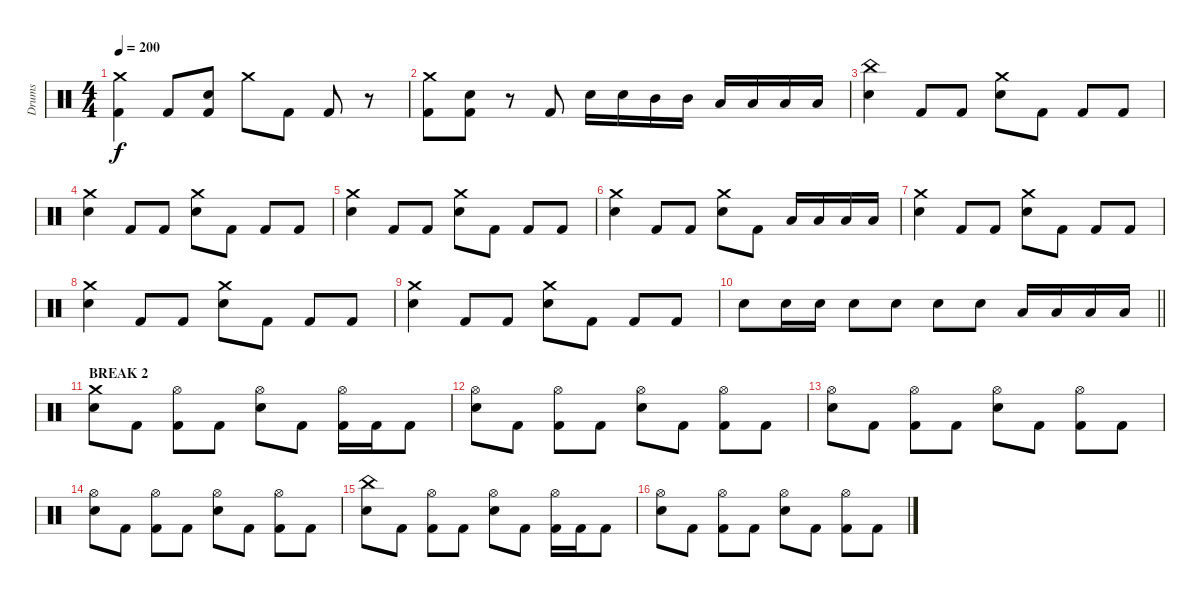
\track ("Drums" "Drums") {instrument percussion}
\staff {score}
\articulation defaults
\ts (4 4)
\tempo 200
\clef neutral
\ks c
("Crash medium (hit)" "Kick (hit) 2").4{dy f} "Kick (hit) 2".8 ("Electric Snare (hit)" "Kick (hit) 2").8 "Crash medium (hit)".8 "Kick (hit) 2".8 "Kick (hit) 2".8 r.8 |
("Crash medium (hit)" "Kick (hit) 2").8 ("Electric Snare (hit)" "Kick (hit) 2").8 r.8 "Kick (hit) 2".8 "Electric Snare (hit)".16 "Electric Snare (hit)".16 "Mid Tom (hit)".16 "Mid Tom (hit)".16 "Low Tom (hit)".16 "Low Tom (hit)".16 "Low Floor Tom (hit)".16 "Low Floor Tom (hit)".16 |
("China (hit)" "Electric Snare (hit)").4 "Kick (hit) 2".8 "Kick (hit) 2".8 ("Crash medium (hit)" "Electric Snare (hit)").8 "Kick (hit) 2".8 "Kick (hit) 2".8 "Kick (hit) 2".8 |
("Crash medium (hit)" "Electric Snare (hit)").4 "Kick (hit) 2".8 "Kick (hit) 2".8 ("Crash medium (hit)" "Electric Snare (hit)").8 "Kick (hit) 2".8 "Kick (hit) 2".8 "Kick (hit) 2".8 |
("Crash medium (hit)" "Electric Snare (hit)").4 "Kick (hit) 2".8 "Kick (hit) 2".8 ("Crash medium (hit)" "Electric Snare (hit)").8 "Kick (hit) 2".8 "Kick (hit) 2".8 "Kick (hit) 2".8 |
("Crash medium (hit)" "Electric Snare (hit)").4 "Kick (hit) 2".8 "Kick (hit) 2".8 ("Crash medium (hit)" "Electric Snare (hit)").8 "Kick (hit) 2".8 "Low Tom (hit)".16 "Low Tom (hit)".16 "Low Floor Tom (hit)".16 "Low Floor Tom (hit)".16 |
("Crash medium (hit)" "Electric Snare (hit)").4 "Kick (hit) 2".8 "Kick (hit) 2".8 ("Crash medium (hit)" "Electric Snare (hit)").8 "Kick (hit) 2".8 "Kick (hit) 2".8 "Kick (hit) 2".8 |
("Crash medium (hit)" "Electric Snare (hit)").4 "Kick (hit) 2".8 "Kick (hit) 2".8 ("Crash medium (hit)" "Electric Snare (hit)").8 "Kick (hit) 2".8 "Kick (hit) 2".8 "Kick (hit) 2".8 |
("Crash medium (hit)" "Electric Snare (hit)").4 "Kick (hit) 2".8 "Kick (hit) 2".8 ("Crash medium (hit)" "Electric Snare (hit)").8 "Kick (hit) 2".8 "Kick (hit) 2".8 "Kick (hit) 2".8 |
\barLineRight lightlight "Electric Snare (hit)".8 "Electric Snare (hit)".16 "Electric Snare (hit)".16 "Electric Snare (hit)".8 "Electric Snare (hit)".8 "Electric Snare (hit)".8 "Electric Snare (hit)".8 "Low Tom (hit)".16 "Low Tom (hit)".16 "Low Floor Tom (hit)".16 "Low Floor Tom (hit)".16
|
\section ("" "BREAK 2")
("Crash medium (hit)" "Electric Snare (hit)").8 "Kick (hit) 2".8 ("Hi-Hat (open)" "Kick (hit) 2").8 "Kick (hit) 2".8 ("Hi-Hat (open)" "Electric Snare (hit)").8 "Kick (hit) 2".8 ("Hi-Hat (open)" "Kick (hit) 2").16 "Kick (hit) 2".16 "Kick (hit) 2".8 |
("Hi-Hat (open)" "Electric Snare (hit)").8 "Kick (hit) 2".8 ("Hi-Hat (open)" "Kick (hit) 2").8 "Kick (hit) 2".8 ("Hi-Hat (open)" "Electric Snare (hit)").8 "Kick (hit) 2".8 ("Hi-Hat (open)" "Kick (hit) 2").8 "Kick (hit) 2".8 |
("Hi-Hat (open)" "Electric Snare (hit)").8 "Kick (hit) 2".8 ("Hi-Hat (open)" "Kick (hit) 2").8 "Kick (hit) 2".8 ("Hi-Hat (open)" "Electric Snare (hit)").8 "Kick (hit) 2".8 ("Hi-Hat (open)" "Kick (hit) 2").8 "Kick (hit) 2".8 |
("Hi-Hat (open)" "Electric Snare (hit)").8 "Kick (hit) 2".8 ("Hi-Hat (open)" "Kick (hit) 2").8 "Kick (hit) 2".8 ("Hi-Hat (open)" "Electric Snare (hit)").8 "Kick (hit) 2".8 ("Hi-Hat (open)" "Kick (hit) 2").8 "Kick (hit) 2".8 |
("China (hit)" "Electric Snare (hit)").8 "Kick (hit) 2".8 ("Hi-Hat (open)" "Kick (hit) 2").8 "Kick (hit) 2".8 ("Hi-Hat (open)" "Electric Snare (hit)").8 "Kick (hit) 2".8 ("Hi-Hat (open)" "Kick (hit) 2").16 "Kick (hit) 2".16 "Kick (hit) 2".8 |
("Hi-Hat (open)" "Electric Snare (hit)").8 "Kick (hit) 2".8 ("Hi-Hat (open)" "Kick (hit) 2").8 "Kick (hit) 2".8 ("Hi-Hat (open)" "Electric Snare (hit)").8 "Kick (hit) 2".8 ("Hi-Hat (open)" "Kick (hit) 2").8 "Kick (hit) 2".8
